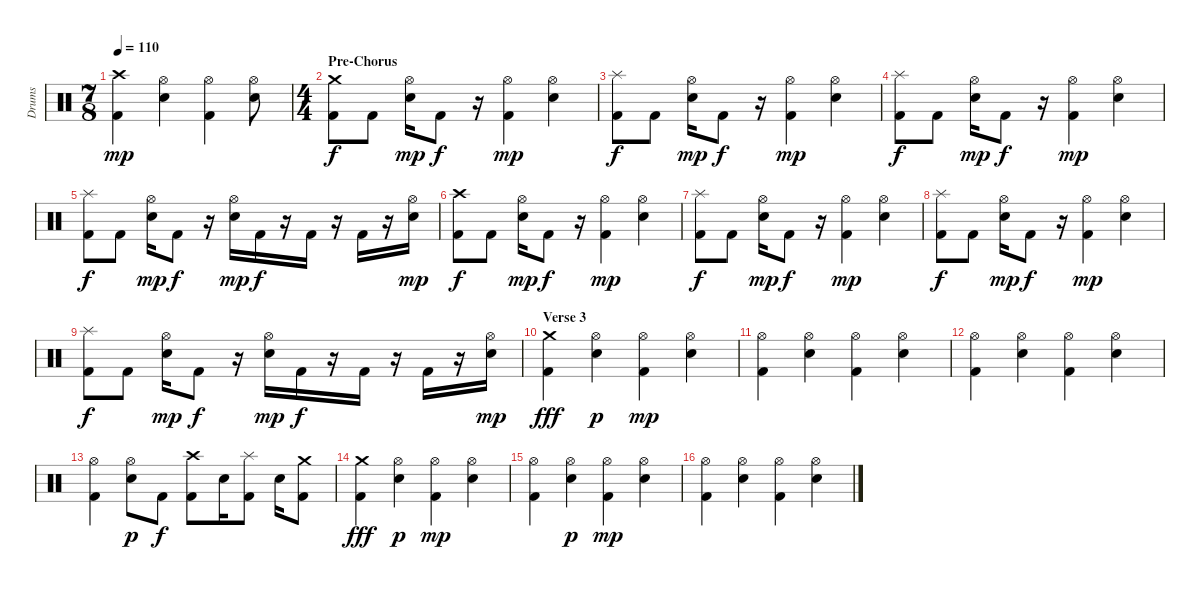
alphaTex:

\track ("Drums" "Drums") {instrument percussion}
\staff {score}
\articulation defaults
\ts (7 8)
\tempo 110
\clef neutral
\ks c
("Crash high (hit)" "Kick (hit) 2").4{dy mp} ("Hi-Hat (open)" "Snare (hit) 2").4 ("Hi-Hat (open)" "Kick (hit) 2").4 ("Hi-Hat (open)" "Snare (hit) 2").8 |
\ts (4 4)
\section ("" "Pre-Chorus")
("Crash medium (hit)" "Kick (hit) 2").8{dy f} "Kick (hit) 2".8 ("Hi-Hat (open)" "Snare (hit) 2").16{dy mp} "Kick (hit) 2".8{dy f} r.16 ("Hi-Hat (open)" "Kick (hit) 2").4{dy mp} ("Hi-Hat (open)" "Snare (hit) 2").4 |
("Splash (hit)" "Kick (hit) 2").8{dy f} "Kick (hit) 2".8 ("Hi-Hat (open)" "Snare (hit) 2").16{dy mp} "Kick (hit) 2".8{dy f} r.16 ("Hi-Hat (open)" "Kick (hit) 2").4{dy mp} ("Hi-Hat (open)" "Snare (hit) 2").4 |
("Splash (hit)" "Kick (hit) 2").8{dy f} "Kick (hit) 2".8 ("Hi-Hat (open)" "Snare (hit) 2").16{dy mp} "Kick (hit) 2".8{dy f} r.16 ("Hi-Hat (open)" "Kick (hit) 2").4{dy mp} ("Hi-Hat (open)" "Snare (hit) 2").4 |
("Splash (hit)" "Kick (hit) 2").8{dy f} "Kick (hit) 2".8 ("Hi-Hat (open)" "Snare (hit) 2").16{dy mp} "Kick (hit) 2".8{dy f} r.16 ("Hi-Hat (open)" "Snare (hit) 2").16{dy mp} "Kick (hit) 2".16{dy f} r.16 "Kick (hit) 2".16 r.16 "Kick (hit) 2".16 r.16 ("Hi-Hat (open)" "Snare (hit) 2").16{dy mp} |
("Crash high (hit)" "Kick (hit) 2").8{dy f} "Kick (hit) 2".8 ("Hi-Hat (open)" "Snare (hit) 2").16{dy mp} "Kick (hit) 2".8{dy f} r.16 ("Hi-Hat (open)" "Kick (hit) 2").4{dy mp} ("Hi-Hat (open)" "Snare (hit) 2").4 |
("Splash (hit)" "Kick (hit) 2").8{dy f} "Kick (hit) 2".8 ("Hi-Hat (open)" "Snare (hit) 2").16{dy mp} "Kick (hit) 2".8{dy f} r.16 ("Hi-Hat (open)" "Kick (hit) 2").4{dy mp} ("Hi-Hat (open)" "Snare (hit) 2").4 |
("Splash (hit)" "Kick (hit) 2").8{dy f} "Kick (hit) 2".8 ("Hi-Hat (open)" "Snare (hit) 2").16{dy mp} "Kick (hit) 2".8{dy f} r.16 ("Hi-Hat (open)" "Kick (hit) 2").4{dy mp} ("Hi-Hat (open)" "Snare (hit) 2").4 |
("Splash (hit)" "Kick (hit) 2").8{dy f} "Kick (hit) 2".8 ("Hi-Hat (open)" "Snare (hit) 2").16{dy mp} "Kick (hit) 2".8{dy f} r.16 ("Hi-Hat (open)" "Snare (hit) 2").16{dy mp} "Kick (hit) 2".16{dy f} r.16 "Kick (hit) 2".16 r.16 "Kick (hit) 2".16 r.16 ("Hi-Hat (open)" "Snare (hit) 2").16{dy mp} |
\section ("" "Verse 3")
("Crash medium (hit)" "Kick (hit) 2").4{dy fff} ("Hi-Hat (open)" "Snare (hit) 2").4{dy p} ("Hi-Hat (open)" "Kick (hit) 2").4{dy mp} ("Hi-Hat (open)" "Snare (hit) 2").4 |
("Hi-Hat (open)" "Kick (hit) 2").4 ("Hi-Hat (open)" "Snare (hit) 2").4 ("Hi-Hat (open)" "Kick (hit) 2").4 ("Hi-Hat (open)" "Snare (hit) 2").4 |
("Hi-Hat (open)" "Kick (hit) 2").4 ("Hi-Hat (open)" "Snare (hit) 2").4 ("Hi-Hat (open)" "Kick (hit) 2").4 ("Hi-Hat (open)" "Snare (hit) 2").4 |
("Hi-Hat (open)" "Kick (hit) 2").4 ("Hi-Hat (open)" "Snare (hit) 2").8{dy p} "Kick (hit) 2".8{dy f} ("Crash high (hit)" "Kick (hit) 2").8 "Snare (hit) 2".16 ("Splash (hit)" "Kick (hit) 2").8 "Snare (hit) 2".16 ("Crash medium (hit)" "Kick (hit) 2").8 |
("Crash medium (hit)" "Kick (hit) 2").4{dy fff} ("Hi-Hat (open)" "Snare (hit) 2").4{dy p} ("Hi-Hat (open)" "Kick (hit) 2").4{dy mp} ("Hi-Hat (open)" "Snare (hit) 2").4 |
("Hi-Hat (open)" "Kick (hit) 2").4 ("Hi-Hat (open)" "Snare (hit) 2").4{dy p} ("Hi-Hat (open)" "Kick (hit) 2").4{dy mp} ("Hi-Hat (open)" "Snare (hit) 2").4 |
("Hi-Hat (open)" "Kick (hit) 2").4 ("Hi-Hat (open)" "Snare (hit) 2").4 ("Hi-Hat (open)" "Kick (hit) 2").4 ("Hi-Hat (open)" "Snare (hit) 2").4
